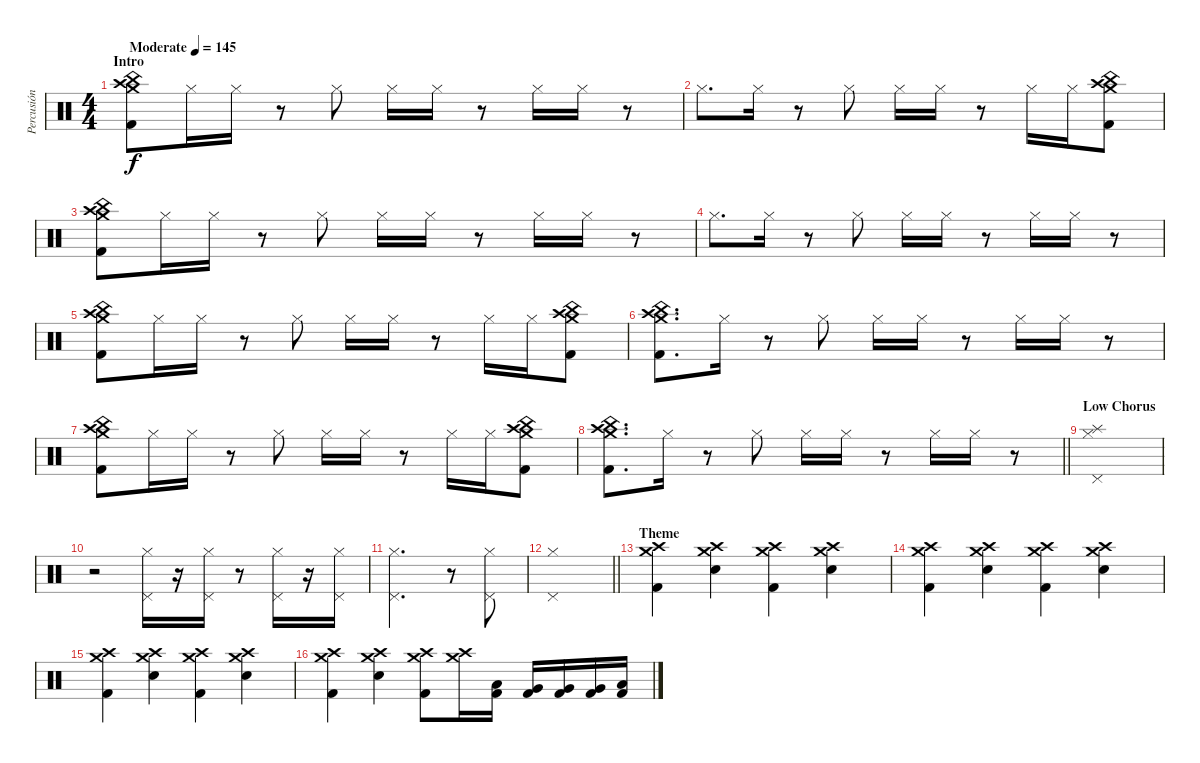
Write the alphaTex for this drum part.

\track ("Percusión" "Percusión") {instrument percussion}
\staff {score}
\articulation defaults
\ts (4 4)
\section ("" "Intro")
\tempo (145 "Moderate")
\clef neutral
\ks c
("Crash medium (hit)" "Crash high (hit)" "China (hit)" "Kick (hit) 2").8{dy f} "Hi-Hat (closed)".16 "Hi-Hat (closed)".16 r.8 "Hi-Hat (closed)".8 "Hi-Hat (closed)".16 "Hi-Hat (closed)".16 r.8 "Hi-Hat (closed)".16 "Hi-Hat (closed)".16 r.8 |
"Hi-Hat (closed)".8{d} "Hi-Hat (closed)".16 r.8 "Hi-Hat (closed)".8 "Hi-Hat (closed)".16 "Hi-Hat (closed)".16 r.8 "Hi-Hat (closed)".16 "Hi-Hat (closed)".16 ("Crash medium (hit)" "Crash high (hit)" "China (hit)" "Kick (hit) 2").8 |
("Crash medium (hit)" "Crash high (hit)" "China (hit)" "Kick (hit) 2").8 "Hi-Hat (closed)".16 "Hi-Hat (closed)".16 r.8 "Hi-Hat (closed)".8 "Hi-Hat (closed)".16 "Hi-Hat (closed)".16 r.8 "Hi-Hat (closed)".16 "Hi-Hat (closed)".16 r.8 |
"Hi-Hat (closed)".8{d} "Hi-Hat (closed)".16 r.8 "Hi-Hat (closed)".8 "Hi-Hat (closed)".16 "Hi-Hat (closed)".16 r.8 "Hi-Hat (closed)".16 "Hi-Hat (closed)".16 r.8 |
("Crash medium (hit)" "Crash high (hit)" "China (hit)" "Kick (hit) 2").8 "Hi-Hat (closed)".16 "Hi-Hat (closed)".16 r.8 "Hi-Hat (closed)".8 "Hi-Hat (closed)".16 "Hi-Hat (closed)".16 r.8 "Hi-Hat (closed)".16 "Hi-Hat (closed)".16 ("Crash medium (hit)" "Crash high (hit)" "China (hit)" "Kick (hit) 2").8 |
("Crash medium (hit)" "Crash high (hit)" "China (hit)" "Kick (hit) 2").8{d} "Hi-Hat (closed)".16 r.8 "Hi-Hat (closed)".8 "Hi-Hat (closed)".16 "Hi-Hat (closed)".16 r.8 "Hi-Hat (closed)".16 "Hi-Hat (closed)".16 r.8 |
("Crash medium (hit)" "Crash high (hit)" "China (hit)" "Kick (hit) 2").8 "Hi-Hat (closed)".16 "Hi-Hat (closed)".16 r.8 "Hi-Hat (closed)".8 "Hi-Hat (closed)".16 "Hi-Hat (closed)".16 r.8 "Hi-Hat (closed)".16 "Hi-Hat (closed)".16 ("Crash medium (hit)" "Crash high (hit)" "China (hit)" "Kick (hit) 2").8 |
\barLineRight lightlight
("Crash medium (hit)" "Crash high (hit)" "China (hit)" "Kick (hit) 2").8{d} "Hi-Hat (closed)".16 r.8 "Hi-Hat (closed)".8 "Hi-Hat (closed)".16 "Hi-Hat (closed)".16 r.8 "Hi-Hat (closed)".16 "Hi-Hat (closed)".16 r.8 |
\section ("" "Low Chorus")
("Pedal Hi-Hat (hit)" "Hi-Hat (closed)" "Splash (hit)").1 |
r.2 ("Pedal Hi-Hat (hit)" "Hi-Hat (closed)").16 r.16 ("Pedal Hi-Hat (hit)" "Hi-Hat (closed)").16 r.8 ("Pedal Hi-Hat (hit)" "Hi-Hat (closed)").16 r.16 ("Pedal Hi-Hat (hit)" "Hi-Hat (closed)").16 |
("Pedal Hi-Hat (hit)" "Hi-Hat (closed)").2{d} r.8 ("Pedal Hi-Hat (hit)" "Hi-Hat (closed)").8 |
\barLineRight lightlight
("Pedal Hi-Hat (hit)" "Hi-Hat (closed)").1 |
\section ("" "Theme")
("Crash medium (hit)" "Crash high (hit)" "Kick (hit) 2").4 ("Crash medium (hit)" "Crash high (hit)" "Electric Snare (hit)").4 ("Crash medium (hit)" "Crash high (hit)" "Kick (hit) 2").4 ("Crash medium (hit)" "Crash high (hit)" "Electric Snare (hit)").4 |
("Crash medium (hit)" "Crash high (hit)" "Kick (hit) 2").4 ("Crash medium (hit)" "Crash high (hit)" "Electric Snare (hit)").4 ("Crash medium (hit)" "Crash high (hit)" "Kick (hit) 2").4 ("Crash medium (hit)" "Crash high (hit)" "Electric Snare (hit)").4 |
("Crash medium (hit)" "Crash high (hit)" "Kick (hit) 2").4 ("Crash medium (hit)" "Crash high (hit)" "Electric Snare (hit)").4 ("Crash medium (hit)" "Crash high (hit)" "Kick (hit) 2").4 ("Crash medium (hit)" "Crash high (hit)" "Electric Snare (hit)").4 |
("Crash medium (hit)" "Crash high (hit)" "Kick (hit) 2").4 ("Crash medium (hit)" "Crash high (hit)" "Electric Snare (hit)").4 ("Crash medium (hit)" "Crash high (hit)" "Kick (hit) 2").8 ("Crash medium (hit)" "Crash high (hit)").16 ("Low Tom (hit)" "Kick (hit) 2").16 ("Very Low Tom (hit)" "Kick (hit) 2").16 ("Very Low Tom (hit)" "Kick (hit) 2").16 ("Very Low Tom (hit)" "Kick (hit) 2").16 ("Low Floor Tom (hit)" "Kick (hit) 2").16
